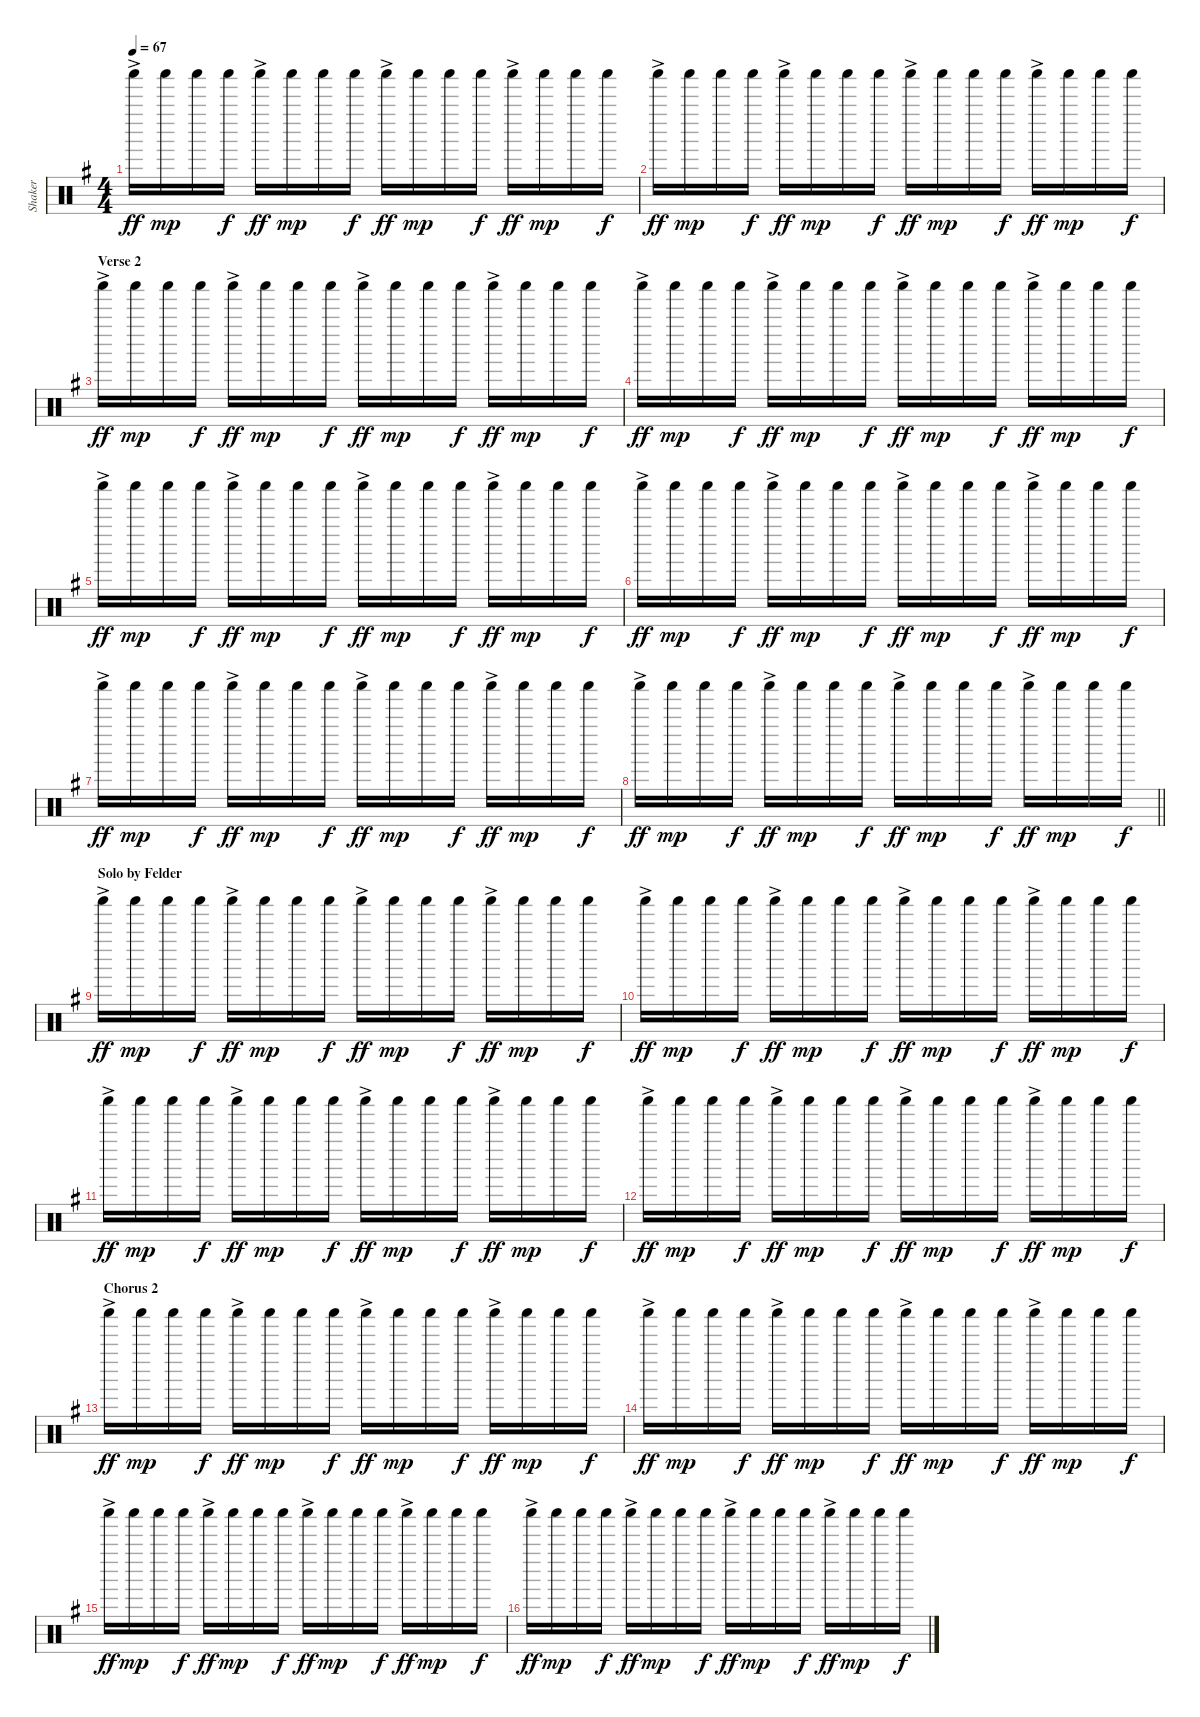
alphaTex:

\track ("Shaker" "Shaker") {instrument percussion}
\staff {score}
\articulation defaults
\ts (4 4)
\tempo 67
\clef neutral
\ks g "Shaker (hit)"{ac}.16{dy ff} "Shaker (hit)".16{dy mp} "Shaker (hit)".16 "Shaker (hit)".16{dy f} "Shaker (hit)"{ac}.16{dy ff} "Shaker (hit)".16{dy mp} "Shaker (hit)".16 "Shaker (hit)".16{dy f} "Shaker (hit)"{ac}.16{dy ff} "Shaker (hit)".16{dy mp} "Shaker (hit)".16 "Shaker (hit)".16{dy f} "Shaker (hit)"{ac}.16{dy ff} "Shaker (hit)".16{dy mp} "Shaker (hit)".16 "Shaker (hit)".16{dy f}
|
"Shaker (hit)"{ac}.16{dy ff} "Shaker (hit)".16{dy mp} "Shaker (hit)".16 "Shaker (hit)".16{dy f} "Shaker (hit)"{ac}.16{dy ff} "Shaker (hit)".16{dy mp} "Shaker (hit)".16 "Shaker (hit)".16{dy f} "Shaker (hit)"{ac}.16{dy ff} "Shaker (hit)".16{dy mp} "Shaker (hit)".16 "Shaker (hit)".16{dy f} "Shaker (hit)"{ac}.16{dy ff} "Shaker (hit)".16{dy mp} "Shaker (hit)".16 "Shaker (hit)".16{dy f} |
\section ("" "Verse 2")
"Shaker (hit)"{ac}.16{dy ff} "Shaker (hit)".16{dy mp} "Shaker (hit)".16 "Shaker (hit)".16{dy f} "Shaker (hit)"{ac}.16{dy ff} "Shaker (hit)".16{dy mp} "Shaker (hit)".16 "Shaker (hit)".16{dy f} "Shaker (hit)"{ac}.16{dy ff} "Shaker (hit)".16{dy mp} "Shaker (hit)".16 "Shaker (hit)".16{dy f} "Shaker (hit)"{ac}.16{dy ff} "Shaker (hit)".16{dy mp} "Shaker (hit)".16 "Shaker (hit)".16{dy f} |
"Shaker (hit)"{ac}.16{dy ff} "Shaker (hit)".16{dy mp} "Shaker (hit)".16 "Shaker (hit)".16{dy f} "Shaker (hit)"{ac}.16{dy ff} "Shaker (hit)".16{dy mp} "Shaker (hit)".16 "Shaker (hit)".16{dy f} "Shaker (hit)"{ac}.16{dy ff} "Shaker (hit)".16{dy mp} "Shaker (hit)".16 "Shaker (hit)".16{dy f} "Shaker (hit)"{ac}.16{dy ff} "Shaker (hit)".16{dy mp} "Shaker (hit)".16 "Shaker (hit)".16{dy f} |
"Shaker (hit)"{ac}.16{dy ff} "Shaker (hit)".16{dy mp} "Shaker (hit)".16 "Shaker (hit)".16{dy f} "Shaker (hit)"{ac}.16{dy ff} "Shaker (hit)".16{dy mp} "Shaker (hit)".16 "Shaker (hit)".16{dy f} "Shaker (hit)"{ac}.16{dy ff} "Shaker (hit)".16{dy mp} "Shaker (hit)".16 "Shaker (hit)".16{dy f} "Shaker (hit)"{ac}.16{dy ff} "Shaker (hit)".16{dy mp} "Shaker (hit)".16 "Shaker (hit)".16{dy f} |
"Shaker (hit)"{ac}.16{dy ff} "Shaker (hit)".16{dy mp} "Shaker (hit)".16 "Shaker (hit)".16{dy f} "Shaker (hit)"{ac}.16{dy ff} "Shaker (hit)".16{dy mp} "Shaker (hit)".16 "Shaker (hit)".16{dy f} "Shaker (hit)"{ac}.16{dy ff} "Shaker (hit)".16{dy mp} "Shaker (hit)".16 "Shaker (hit)".16{dy f} "Shaker (hit)"{ac}.16{dy ff} "Shaker (hit)".16{dy mp} "Shaker (hit)".16 "Shaker (hit)".16{dy f} |
"Shaker (hit)"{ac}.16{dy ff} "Shaker (hit)".16{dy mp} "Shaker (hit)".16 "Shaker (hit)".16{dy f} "Shaker (hit)"{ac}.16{dy ff} "Shaker (hit)".16{dy mp} "Shaker (hit)".16 "Shaker (hit)".16{dy f} "Shaker (hit)"{ac}.16{dy ff} "Shaker (hit)".16{dy mp} "Shaker (hit)".16 "Shaker (hit)".16{dy f} "Shaker (hit)"{ac}.16{dy ff} "Shaker (hit)".16{dy mp} "Shaker (hit)".16 "Shaker (hit)".16{dy f} |
\barLineRight lightlight "Shaker (hit)"{ac}.16{dy ff} "Shaker (hit)".16{dy mp} "Shaker (hit)".16 "Shaker (hit)".16{dy f} "Shaker (hit)"{ac}.16{dy ff} "Shaker (hit)".16{dy mp} "Shaker (hit)".16 "Shaker (hit)".16{dy f} "Shaker (hit)"{ac}.16{dy ff} "Shaker (hit)".16{dy mp} "Shaker (hit)".16 "Shaker (hit)".16{dy f} "Shaker (hit)"{ac}.16{dy ff} "Shaker (hit)".16{dy mp} "Shaker (hit)".16 "Shaker (hit)".16{dy f}
|
\section ("" "Solo by Felder")
"Shaker (hit)"{ac}.16{dy ff} "Shaker (hit)".16{dy mp} "Shaker (hit)".16 "Shaker (hit)".16{dy f} "Shaker (hit)"{ac}.16{dy ff} "Shaker (hit)".16{dy mp} "Shaker (hit)".16 "Shaker (hit)".16{dy f} "Shaker (hit)"{ac}.16{dy ff} "Shaker (hit)".16{dy mp} "Shaker (hit)".16 "Shaker (hit)".16{dy f} "Shaker (hit)"{ac}.16{dy ff} "Shaker (hit)".16{dy mp} "Shaker (hit)".16 "Shaker (hit)".16{dy f} |
"Shaker (hit)"{ac}.16{dy ff} "Shaker (hit)".16{dy mp} "Shaker (hit)".16 "Shaker (hit)".16{dy f} "Shaker (hit)"{ac}.16{dy ff} "Shaker (hit)".16{dy mp} "Shaker (hit)".16 "Shaker (hit)".16{dy f} "Shaker (hit)"{ac}.16{dy ff} "Shaker (hit)".16{dy mp} "Shaker (hit)".16 "Shaker (hit)".16{dy f} "Shaker (hit)"{ac}.16{dy ff} "Shaker (hit)".16{dy mp} "Shaker (hit)".16 "Shaker (hit)".16{dy f} |
"Shaker (hit)"{ac}.16{dy ff} "Shaker (hit)".16{dy mp} "Shaker (hit)".16 "Shaker (hit)".16{dy f} "Shaker (hit)"{ac}.16{dy ff} "Shaker (hit)".16{dy mp} "Shaker (hit)".16 "Shaker (hit)".16{dy f} "Shaker (hit)"{ac}.16{dy ff} "Shaker (hit)".16{dy mp} "Shaker (hit)".16 "Shaker (hit)".16{dy f} "Shaker (hit)"{ac}.16{dy ff} "Shaker (hit)".16{dy mp} "Shaker (hit)".16 "Shaker (hit)".16{dy f} |
"Shaker (hit)"{ac}.16{dy ff} "Shaker (hit)".16{dy mp} "Shaker (hit)".16 "Shaker (hit)".16{dy f} "Shaker (hit)"{ac}.16{dy ff} "Shaker (hit)".16{dy mp} "Shaker (hit)".16 "Shaker (hit)".16{dy f} "Shaker (hit)"{ac}.16{dy ff} "Shaker (hit)".16{dy mp} "Shaker (hit)".16 "Shaker (hit)".16{dy f} "Shaker (hit)"{ac}.16{dy ff} "Shaker (hit)".16{dy mp} "Shaker (hit)".16 "Shaker (hit)".16{dy f} |
\section ("" "Chorus 2")
"Shaker (hit)"{ac}.16{dy ff} "Shaker (hit)".16{dy mp} "Shaker (hit)".16 "Shaker (hit)".16{dy f} "Shaker (hit)"{ac}.16{dy ff} "Shaker (hit)".16{dy mp} "Shaker (hit)".16 "Shaker (hit)".16{dy f} "Shaker (hit)"{ac}.16{dy ff} "Shaker (hit)".16{dy mp} "Shaker (hit)".16 "Shaker (hit)".16{dy f} "Shaker (hit)"{ac}.16{dy ff} "Shaker (hit)".16{dy mp} "Shaker (hit)".16 "Shaker (hit)".16{dy f} |
"Shaker (hit)"{ac}.16{dy ff} "Shaker (hit)".16{dy mp} "Shaker (hit)".16 "Shaker (hit)".16{dy f} "Shaker (hit)"{ac}.16{dy ff} "Shaker (hit)".16{dy mp} "Shaker (hit)".16 "Shaker (hit)".16{dy f} "Shaker (hit)"{ac}.16{dy ff} "Shaker (hit)".16{dy mp} "Shaker (hit)".16 "Shaker (hit)".16{dy f} "Shaker (hit)"{ac}.16{dy ff} "Shaker (hit)".16{dy mp} "Shaker (hit)".16 "Shaker (hit)".16{dy f} |
"Shaker (hit)"{ac}.16{dy ff} "Shaker (hit)".16{dy mp} "Shaker (hit)".16 "Shaker (hit)".16{dy f} "Shaker (hit)"{ac}.16{dy ff} "Shaker (hit)".16{dy mp} "Shaker (hit)".16 "Shaker (hit)".16{dy f} "Shaker (hit)"{ac}.16{dy ff} "Shaker (hit)".16{dy mp} "Shaker (hit)".16 "Shaker (hit)".16{dy f} "Shaker (hit)"{ac}.16{dy ff} "Shaker (hit)".16{dy mp} "Shaker (hit)".16 "Shaker (hit)".16{dy f} |
"Shaker (hit)"{ac}.16{dy ff} "Shaker (hit)".16{dy mp} "Shaker (hit)".16 "Shaker (hit)".16{dy f} "Shaker (hit)"{ac}.16{dy ff} "Shaker (hit)".16{dy mp} "Shaker (hit)".16 "Shaker (hit)".16{dy f} "Shaker (hit)"{ac}.16{dy ff} "Shaker (hit)".16{dy mp} "Shaker (hit)".16 "Shaker (hit)".16{dy f} "Shaker (hit)"{ac}.16{dy ff} "Shaker (hit)".16{dy mp} "Shaker (hit)".16 "Shaker (hit)".16{dy f}
